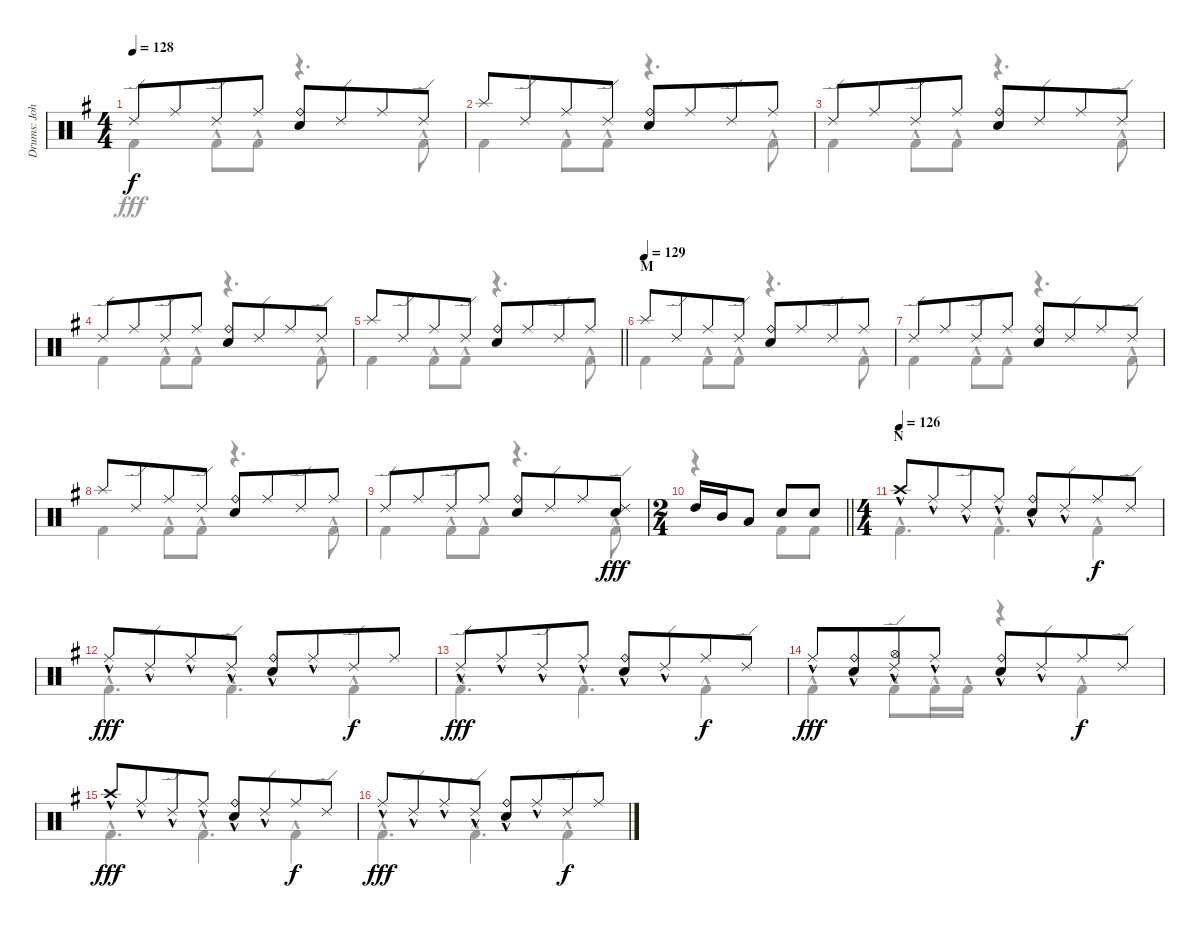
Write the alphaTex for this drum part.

\track ("Drums: John" "Drums: Joh") {instrument percussion}
\staff {score}
\articulation defaults
\voice
\ts (4 4)
\tempo 128
\clef neutral
\ks g "Ride (edge) 2".8{dy f} "Ride (middle)".8{beam merge} "Ride (edge) 2".8 "Ride (middle)".8
("Ride (bell)" "Electric Snare (hit)").8 "Ride (edge) 2".8{beam merge} "Ride (middle)".8 "Ride (edge) 2".8 |
"Splash (hit)".8 "Ride (edge) 2".8{beam merge} "Ride (middle)".8 "Ride (edge) 2".8 ("Ride (bell)" "Electric Snare (hit)").8 "Ride (middle)".8{beam merge} "Ride (edge) 2".8 "Ride (middle)".8 |
"Ride (edge) 2".8 "Ride (middle)".8{beam merge} "Ride (edge) 2".8 "Ride (middle)".8 ("Ride (bell)" "Electric Snare (hit)").8 "Ride (edge) 2".8{beam merge} "Ride (middle)".8 "Ride (edge) 2".8 |
"Ride (edge) 2".8 "Ride (middle)".8{beam merge} "Ride (edge) 2".8 "Ride (middle)".8 ("Ride (bell)" "Electric Snare (hit)").8 "Ride (edge) 2".8{beam merge} "Ride (middle)".8 "Ride (edge) 2".8 |
\barLineRight lightlight "Splash (hit)".8 "Ride (edge) 2".8{beam merge} "Ride (middle)".8 "Ride (edge) 2".8
("Ride (bell)" "Electric Snare (hit)").8 "Ride (middle)".8{beam merge} "Ride (edge) 2".8 "Ride (middle)".8 |
\section ("" "M")
\tempo (129)
"Splash (hit)".8 "Ride (edge) 2".8{beam merge} "Ride (middle)".8 "Ride (edge) 2".8 ("Ride (bell)" "Electric Snare (hit)").8 "Ride (middle)".8{beam merge} "Ride (edge) 2".8 "Ride (middle)".8 |
"Ride (edge) 2".8 "Ride (middle)".8{beam merge} "Ride (edge) 2".8 "Ride (middle)".8 ("Ride (bell)" "Electric Snare (hit)").8 "Ride (edge) 2".8{beam merge} "Ride (middle)".8 "Ride (edge) 2".8 |
"Splash (hit)".8 "Ride (edge) 2".8{beam merge} "Ride (middle)".8 "Ride (edge) 2".8 ("Ride (bell)" "Electric Snare (hit)").8 "Ride (middle)".8{beam merge} "Ride (edge) 2".8 "Ride (middle)".8 |
"Ride (edge) 2".8 "Ride (middle)".8{beam merge} "Ride (edge) 2".8 "Ride (middle)".8 ("Ride (bell)" "Electric Snare (hit)").8 "Ride (edge) 2".8{beam merge} "Ride (middle)".8 ("Ride (edge) 2" "Electric Snare (hit)").8{dy fff} |
\ts (2 4)
\barLineRight lightlight "High Tom (hit)".16 "Mid Tom (hit)".16 "Low Tom (hit)".8 "Electric Snare (hit)".8 "Electric Snare (hit)".8
|
\ts (4 4)
\section ("" "N")
\tempo (126)
"Crash high (hit)"{hac}.8 "Ride (middle)"{hac}.8{beam merge} "Ride (edge) 2"{hac}.8 "Ride (middle)"{hac}.8 ("Ride (bell)" "Snare (hit) 2"{hac}).8 "Ride (edge) 2"{hac}.8{beam merge} "Ride (middle)".8{dy f} "Ride (edge) 2".8 |
"Ride (middle)"{hac}.8{dy fff} "Ride (edge) 2"{hac}.8{beam merge} "Ride (middle)"{hac}.8 "Ride (edge) 2"{hac}.8 ("Ride (bell)" "Snare (hit) 2"{hac}).8 "Ride (middle)"{hac}.8{beam merge} "Ride (edge) 2".8{dy f} "Ride (middle)".8 |
"Ride (edge) 2"{hac}.8{dy fff} "Ride (middle)"{hac}.8{beam merge} "Ride (edge) 2"{hac}.8 "Ride (middle)"{hac}.8 ("Ride (bell)" "Snare (hit) 2"{hac}).8 "Ride (edge) 2"{hac}.8{beam merge} "Ride (middle)".8{dy f} "Ride (edge) 2".8 |
"Ride (middle)"{hac}.8{dy fff} ("Ride (bell)" "Electric Snare (hit)"{hac}).8{beam merge} ("Ride (edge) 2" "Hi-Hat (open)"{hac}).8 "Ride (middle)"{hac}.8 ("Ride (bell)" "Electric Snare (hit)"{hac}).8 "Ride (edge) 2"{hac}.8{beam merge} "Ride (middle)".8{dy f} "Ride (edge) 2".8 |
"Crash high (hit)"{hac}.8{dy fff} "Ride (middle)"{hac}.8{beam merge} "Ride (edge) 2"{hac}.8 "Ride (middle)"{hac}.8 ("Ride (bell)" "Snare (hit) 2"{hac}).8 "Ride (edge) 2"{hac}.8{beam merge} "Ride (middle)".8{dy f} "Ride (edge) 2".8 |
"Ride (middle)"{hac}.8{dy fff} "Ride (edge) 2"{hac}.8{beam merge} "Ride (middle)"{hac}.8 "Ride (edge) 2"{hac}.8 ("Ride (bell)" "Snare (hit) 2"{hac}).8 "Ride (middle)"{hac}.8{beam merge} "Ride (edge) 2".8{dy f} "Ride (middle)".8
\voice
\clef neutral
\ottava regular
\simile none
\ks g "Kick (hit) 2".4{dy fff} "Kick (hit) 2"{hac}.8 "Kick (hit) 2"{hac}.8
r.4{d} "Kick (hit) 2"{hac}.8 |
"Kick (hit) 2".4 "Kick (hit) 2"{hac}.8 "Kick (hit) 2"{hac}.8 r.4{d} "Kick (hit) 2"{hac}.8 |
"Kick (hit) 2".4 "Kick (hit) 2"{hac}.8 "Kick (hit) 2"{hac}.8 r.4{d} "Kick (hit) 2"{hac}.8 |
"Kick (hit) 2".4 "Kick (hit) 2"{hac}.8 "Kick (hit) 2"{hac}.8 r.4{d} "Kick (hit) 2"{hac}.8 |
\barLineRight lightlight "Kick (hit) 2".4 "Kick (hit) 2"{hac}.8 "Kick (hit) 2"{hac}.8
r.4{d} "Kick (hit) 2"{hac}.8 |
"Kick (hit) 2".4 "Kick (hit) 2"{hac}.8 "Kick (hit) 2"{hac}.8 r.4{d} "Kick (hit) 2"{hac}.8 |
"Kick (hit) 2".4 "Kick (hit) 2"{hac}.8 "Kick (hit) 2"{hac}.8 r.4{d} "Kick (hit) 2"{hac}.8 |
"Kick (hit) 2".4 "Kick (hit) 2"{hac}.8 "Kick (hit) 2"{hac}.8 r.4{d} "Kick (hit) 2"{hac}.8 |
"Kick (hit) 2".4 "Kick (hit) 2"{hac}.8 "Kick (hit) 2"{hac}.8 r.4{d} "Kick (hit) 2"{hac}.8 |
\barLineRight lightlight
r.4 "Kick (hit) 2".8 "Kick (hit) 2".8 |
"Kick (hit) 2"{hac}.4{d} "Kick (hit) 2"{hac}.4{d} "Kick (hit) 2"{hac}.4 |
"Kick (hit) 2"{hac}.4{d} "Kick (hit) 2"{hac}.4{d} "Kick (hit) 2"{hac}.4 |
"Kick (hit) 2"{hac}.4{d} "Kick (hit) 2"{hac}.4{d} "Kick (hit) 2"{hac}.4 |
"Kick (hit) 2"{hac}.4 "Kick (hit) 2"{hac}.8 "Kick (hit) 2"{hac}.16 "Kick (hit) 2"{hac}.16 r.4 "Kick (hit) 2"{hac}.4 |
"Kick (hit) 2"{hac}.4{d} "Kick (hit) 2"{hac}.4{d} "Kick (hit) 2"{hac}.4 |
"Kick (hit) 2"{hac}.4{d} "Kick (hit) 2"{hac}.4{d} "Kick (hit) 2"{hac}.4
